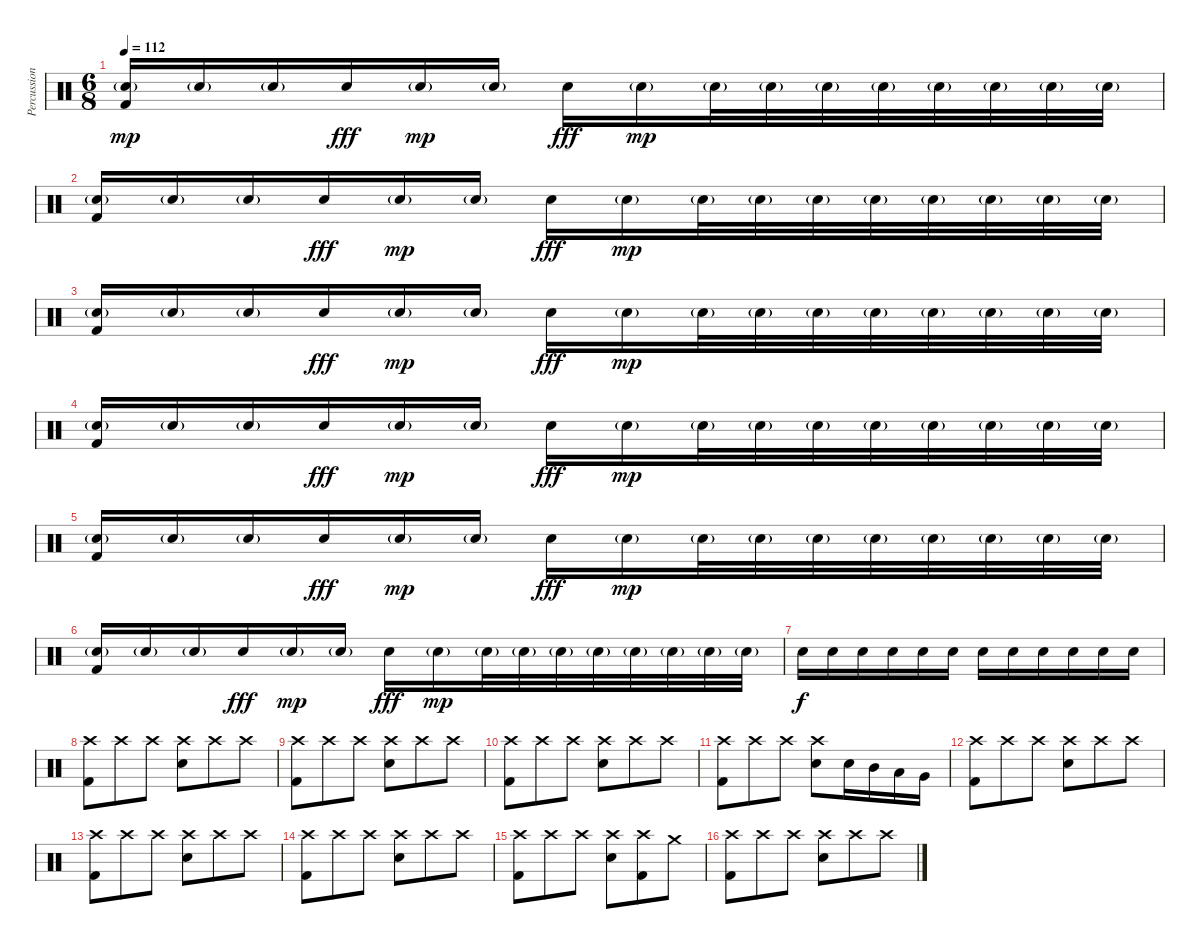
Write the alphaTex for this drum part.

\track ("Percussion" "Percussion") {instrument percussion}
\staff {score}
\articulation defaults
\ts (6 8)
\tempo 112
\clef neutral
\ks c
("Electric Snare (hit)"{g} "Kick (hit) 2").16{dy mp} "Electric Snare (hit)"{g}.16 "Electric Snare (hit)"{g}.16 "Electric Snare (hit)".16{dy fff} "Electric Snare (hit)"{g}.16{dy mp} "Electric Snare (hit)"{g}.16 "Electric Snare (hit)".16{dy fff} "Electric Snare (hit)"{g}.16{dy mp} "Electric Snare (hit)"{g}.32 "Electric Snare (hit)"{g}.32 "Electric Snare (hit)"{g}.32 "Electric Snare (hit)"{g}.32 "Electric Snare (hit)"{g}.32 "Electric Snare (hit)"{g}.32 "Electric Snare (hit)"{g}.32 "Electric Snare (hit)"{g}.32 |
("Electric Snare (hit)"{g} "Kick (hit) 2").16 "Electric Snare (hit)"{g}.16 "Electric Snare (hit)"{g}.16 "Electric Snare (hit)".16{dy fff} "Electric Snare (hit)"{g}.16{dy mp} "Electric Snare (hit)"{g}.16 "Electric Snare (hit)".16{dy fff} "Electric Snare (hit)"{g}.16{dy mp} "Electric Snare (hit)"{g}.32 "Electric Snare (hit)"{g}.32 "Electric Snare (hit)"{g}.32 "Electric Snare (hit)"{g}.32 "Electric Snare (hit)"{g}.32 "Electric Snare (hit)"{g}.32 "Electric Snare (hit)"{g}.32 "Electric Snare (hit)"{g}.32 |
("Electric Snare (hit)"{g} "Kick (hit) 2").16 "Electric Snare (hit)"{g}.16 "Electric Snare (hit)"{g}.16 "Electric Snare (hit)".16{dy fff} "Electric Snare (hit)"{g}.16{dy mp} "Electric Snare (hit)"{g}.16 "Electric Snare (hit)".16{dy fff} "Electric Snare (hit)"{g}.16{dy mp} "Electric Snare (hit)"{g}.32 "Electric Snare (hit)"{g}.32 "Electric Snare (hit)"{g}.32 "Electric Snare (hit)"{g}.32 "Electric Snare (hit)"{g}.32 "Electric Snare (hit)"{g}.32 "Electric Snare (hit)"{g}.32 "Electric Snare (hit)"{g}.32 |
("Electric Snare (hit)"{g} "Kick (hit) 2").16 "Electric Snare (hit)"{g}.16 "Electric Snare (hit)"{g}.16 "Electric Snare (hit)".16{dy fff} "Electric Snare (hit)"{g}.16{dy mp} "Electric Snare (hit)"{g}.16 "Electric Snare (hit)".16{dy fff} "Electric Snare (hit)"{g}.16{dy mp} "Electric Snare (hit)"{g}.32 "Electric Snare (hit)"{g}.32 "Electric Snare (hit)"{g}.32 "Electric Snare (hit)"{g}.32 "Electric Snare (hit)"{g}.32 "Electric Snare (hit)"{g}.32 "Electric Snare (hit)"{g}.32 "Electric Snare (hit)"{g}.32 |
("Electric Snare (hit)"{g} "Kick (hit) 2").16 "Electric Snare (hit)"{g}.16 "Electric Snare (hit)"{g}.16 "Electric Snare (hit)".16{dy fff} "Electric Snare (hit)"{g}.16{dy mp} "Electric Snare (hit)"{g}.16 "Electric Snare (hit)".16{dy fff} "Electric Snare (hit)"{g}.16{dy mp} "Electric Snare (hit)"{g}.32 "Electric Snare (hit)"{g}.32 "Electric Snare (hit)"{g}.32 "Electric Snare (hit)"{g}.32 "Electric Snare (hit)"{g}.32 "Electric Snare (hit)"{g}.32 "Electric Snare (hit)"{g}.32 "Electric Snare (hit)"{g}.32 |
("Electric Snare (hit)"{g} "Kick (hit) 2").16 "Electric Snare (hit)"{g}.16 "Electric Snare (hit)"{g}.16 "Electric Snare (hit)".16{dy fff} "Electric Snare (hit)"{g}.16{dy mp} "Electric Snare (hit)"{g}.16 "Electric Snare (hit)".16{dy fff} "Electric Snare (hit)"{g}.16{dy mp} "Electric Snare (hit)"{g}.32 "Electric Snare (hit)"{g}.32 "Electric Snare (hit)"{g}.32 "Electric Snare (hit)"{g}.32 "Electric Snare (hit)"{g}.32 "Electric Snare (hit)"{g}.32 "Electric Snare (hit)"{g}.32 "Electric Snare (hit)"{g}.32 |
"Electric Snare (hit)".16{dy f} "Electric Snare (hit)".16 "Electric Snare (hit)".16 "Electric Snare (hit)".16 "Electric Snare (hit)".16 "Electric Snare (hit)".16 "Electric Snare (hit)".16 "Electric Snare (hit)".16 "Electric Snare (hit)".16 "Electric Snare (hit)".16 "Electric Snare (hit)".16 "Electric Snare (hit)".16 |
("Crash high (hit)" "Kick (hit) 2").8 "Crash high (hit)".8 "Crash high (hit)".8 ("Crash high (hit)" "Electric Snare (hit)").8 "Crash high (hit)".8 "Crash high (hit)".8 |
("Crash high (hit)" "Kick (hit) 2").8 "Crash high (hit)".8 "Crash high (hit)".8 ("Crash high (hit)" "Electric Snare (hit)").8 "Crash high (hit)".8 "Crash high (hit)".8 |
("Crash high (hit)" "Kick (hit) 2").8 "Crash high (hit)".8 "Crash high (hit)".8 ("Crash high (hit)" "Electric Snare (hit)").8 "Crash high (hit)".8 "Crash high (hit)".8 |
("Crash high (hit)" "Kick (hit) 2").8 "Crash high (hit)".8 "Crash high (hit)".8 ("Crash high (hit)" "Electric Snare (hit)").8 "Electric Snare (hit)".16 "Mid Tom (hit)".16 "Low Tom (hit)".16 "Very Low Tom (hit)".16 |
("Crash high (hit)" "Kick (hit) 2").8 "Crash high (hit)".8 "Crash high (hit)".8 ("Crash high (hit)" "Electric Snare (hit)").8 "Crash high (hit)".8 "Crash high (hit)".8 |
("Crash high (hit)" "Kick (hit) 2").8 "Crash high (hit)".8 "Crash high (hit)".8 ("Crash high (hit)" "Electric Snare (hit)").8 "Crash high (hit)".8 "Crash high (hit)".8 |
("Crash high (hit)" "Kick (hit) 2").8 "Crash high (hit)".8 "Crash high (hit)".8 ("Crash high (hit)" "Electric Snare (hit)").8 "Crash high (hit)".8 "Crash high (hit)".8 |
("Crash high (hit)" "Kick (hit) 2").8 "Crash high (hit)".8 "Crash high (hit)".8 ("Crash high (hit)" "Electric Snare (hit)").8 ("Crash high (hit)" "Kick (hit) 2").8 "Crash medium (hit)".8 |
("Crash high (hit)" "Kick (hit) 2").8 "Crash high (hit)".8 "Crash high (hit)".8 ("Crash high (hit)" "Electric Snare (hit)").8 "Crash high (hit)".8 "Crash high (hit)".8
